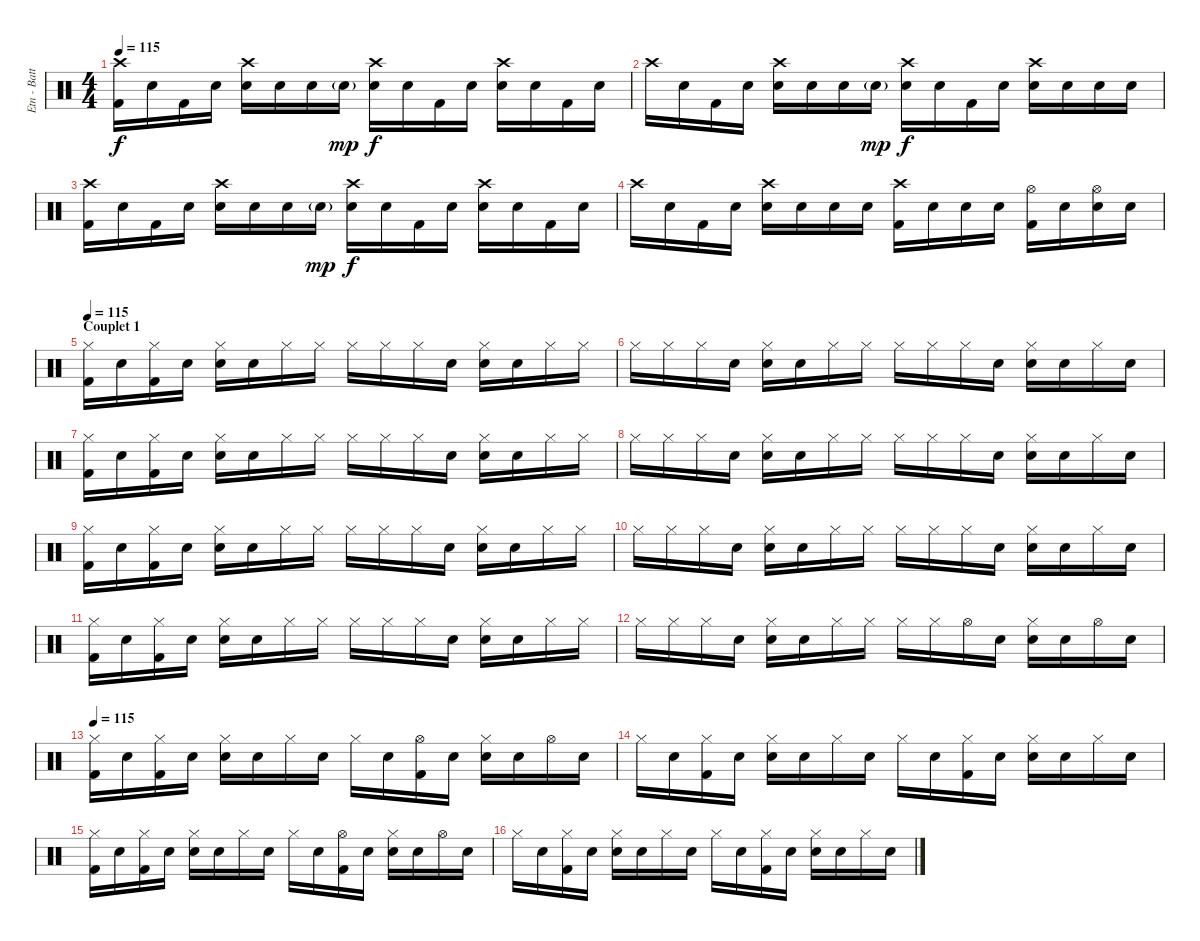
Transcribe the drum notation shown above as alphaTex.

\track ("Etn - Batterie" "Etn - Batt") {instrument percussion}
\staff {score}
\articulation defaults
\ts (4 4)
\tempo 115
\clef neutral
\ks c
("Crash high (hit)" "Kick (hit) 2").16{dy f volume 16 balance 8} "Snare (hit)".16 "Kick (hit) 2".16 "Snare (hit)".16 ("Crash high (hit)" "Electric Snare (hit)").16 "Snare (hit)".16 "Snare (hit)".16 "Electric Snare (hit)"{g}.16{dy mp} ("Crash high (hit)" "Electric Snare (hit)").16{dy f} "Snare (hit)".16 "Kick (hit) 2".16 "Snare (hit)".16 ("Crash high (hit)" "Electric Snare (hit)").16 "Snare (hit)".16 "Kick (hit) 2".16 "Snare (hit)".16 |
"Crash high (hit)".16 "Snare (hit)".16 "Kick (hit) 2".16 "Snare (hit)".16 ("Crash high (hit)" "Electric Snare (hit)").16 "Snare (hit)".16 "Snare (hit)".16 "Electric Snare (hit)"{g}.16{dy mp} ("Crash high (hit)" "Electric Snare (hit)").16{dy f} "Snare (hit)".16 "Kick (hit) 2".16 "Snare (hit)".16 ("Crash high (hit)" "Electric Snare (hit)").16 "Snare (hit)".16 "Electric Snare (hit)".16 "Electric Snare (hit)".16 |
("Crash high (hit)" "Kick (hit) 2").16 "Snare (hit)".16 "Kick (hit) 2".16 "Snare (hit)".16 ("Crash high (hit)" "Electric Snare (hit)").16 "Snare (hit)".16 "Snare (hit)".16 "Electric Snare (hit)"{g}.16{dy mp} ("Crash high (hit)" "Electric Snare (hit)").16{dy f} "Snare (hit)".16 "Kick (hit) 2".16 "Snare (hit)".16 ("Crash high (hit)" "Electric Snare (hit)").16 "Snare (hit)".16 "Kick (hit) 2".16 "Snare (hit)".16 |
"Crash high (hit)".16 "Snare (hit)".16 "Kick (hit) 2".16 "Snare (hit)".16 ("Crash high (hit)" "Electric Snare (hit)").16 "Snare (hit)".16 "Snare (hit)".16 "Snare (hit)".16 ("Crash high (hit)" "Kick (hit) 2").16 "Snare (hit)".16 "Electric Snare (hit)".16 "Snare (hit)".16 ("Hi-Hat (open)" "Kick (hit) 2").16 "Snare (hit)".16 ("Hi-Hat (open)" "Electric Snare (hit)").16 "Snare (hit)".16 |
\section ("" "Couplet 1")
\tempo 115
("Hi-Hat (closed)" "Kick (hit) 2").16{volume 12 balance 8} "Snare (hit)".16 ("Hi-Hat (closed)" "Kick (hit) 2").16 "Snare (hit)".16 ("Hi-Hat (closed)" "Electric Snare (hit)").16 "Snare (hit)".16 "Hi-Hat (closed)".16 "Hi-Hat (closed)".16 "Hi-Hat (closed)".16 "Hi-Hat (closed)".16 "Hi-Hat (closed)".16 "Snare (hit)".16 ("Hi-Hat (closed)" "Electric Snare (hit)").16 "Snare (hit)".16 "Hi-Hat (closed)".16 "Hi-Hat (closed)".16 |
"Hi-Hat (closed)".16 "Hi-Hat (closed)".16 "Hi-Hat (closed)".16 "Snare (hit)".16 ("Hi-Hat (closed)" "Electric Snare (hit)").16 "Snare (hit)".16 "Hi-Hat (closed)".16 "Hi-Hat (closed)".16 "Hi-Hat (closed)".16 "Hi-Hat (closed)".16 "Hi-Hat (closed)".16 "Snare (hit)".16 ("Hi-Hat (closed)" "Electric Snare (hit)").16 "Snare (hit)".16 "Hi-Hat (closed)".16 "Snare (hit)".16 |
("Hi-Hat (closed)" "Kick (hit) 2").16 "Snare (hit)".16 ("Hi-Hat (closed)" "Kick (hit) 2").16 "Snare (hit)".16 ("Hi-Hat (closed)" "Electric Snare (hit)").16 "Snare (hit)".16 "Hi-Hat (closed)".16 "Hi-Hat (closed)".16 "Hi-Hat (closed)".16 "Hi-Hat (closed)".16 "Hi-Hat (closed)".16 "Snare (hit)".16 ("Hi-Hat (closed)" "Electric Snare (hit)").16 "Snare (hit)".16 "Hi-Hat (closed)".16 "Hi-Hat (closed)".16 |
"Hi-Hat (closed)".16 "Hi-Hat (closed)".16 "Hi-Hat (closed)".16 "Snare (hit)".16 ("Hi-Hat (closed)" "Electric Snare (hit)").16 "Snare (hit)".16 "Hi-Hat (closed)".16 "Hi-Hat (closed)".16 "Hi-Hat (closed)".16 "Hi-Hat (closed)".16 "Hi-Hat (closed)".16 "Snare (hit)".16 ("Hi-Hat (closed)" "Electric Snare (hit)").16 "Snare (hit)".16 "Hi-Hat (closed)".16 "Snare (hit)".16 |
("Hi-Hat (closed)" "Kick (hit) 2").16 "Snare (hit)".16 ("Hi-Hat (closed)" "Kick (hit) 2").16 "Snare (hit)".16 ("Hi-Hat (closed)" "Electric Snare (hit)").16 "Snare (hit)".16 "Hi-Hat (closed)".16 "Hi-Hat (closed)".16 "Hi-Hat (closed)".16 "Hi-Hat (closed)".16 "Hi-Hat (closed)".16 "Snare (hit)".16 ("Hi-Hat (closed)" "Electric Snare (hit)").16 "Snare (hit)".16 "Hi-Hat (closed)".16 "Hi-Hat (closed)".16 |
"Hi-Hat (closed)".16 "Hi-Hat (closed)".16 "Hi-Hat (closed)".16 "Snare (hit)".16 ("Hi-Hat (closed)" "Electric Snare (hit)").16 "Snare (hit)".16 "Hi-Hat (closed)".16 "Hi-Hat (closed)".16 "Hi-Hat (closed)".16 "Hi-Hat (closed)".16 "Hi-Hat (closed)".16 "Snare (hit)".16 ("Hi-Hat (closed)" "Electric Snare (hit)").16 "Snare (hit)".16 "Hi-Hat (closed)".16 "Snare (hit)".16 |
("Hi-Hat (closed)" "Kick (hit) 2").16 "Snare (hit)".16 ("Hi-Hat (closed)" "Kick (hit) 2").16 "Snare (hit)".16 ("Hi-Hat (closed)" "Electric Snare (hit)").16 "Snare (hit)".16 "Hi-Hat (closed)".16 "Hi-Hat (closed)".16 "Hi-Hat (closed)".16 "Hi-Hat (closed)".16 "Hi-Hat (closed)".16 "Snare (hit)".16 ("Hi-Hat (closed)" "Electric Snare (hit)").16 "Snare (hit)".16 "Hi-Hat (closed)".16 "Hi-Hat (closed)".16 |
"Hi-Hat (closed)".16 "Hi-Hat (closed)".16 "Hi-Hat (closed)".16 "Snare (hit)".16 ("Hi-Hat (closed)" "Electric Snare (hit)").16 "Snare (hit)".16 "Hi-Hat (closed)".16 "Hi-Hat (closed)".16 "Hi-Hat (closed)".16 "Hi-Hat (closed)".16 "Hi-Hat (open)".16 "Snare (hit)".16 ("Hi-Hat (closed)" "Electric Snare (hit)").16 "Snare (hit)".16 "Hi-Hat (open)".16 "Snare (hit)".16 |
\section ("" "")
\tempo 115
("Hi-Hat (closed)" "Kick (hit) 2").16{volume 12 balance 8} "Snare (hit)".16 ("Hi-Hat (closed)" "Kick (hit) 2").16 "Snare (hit)".16 ("Hi-Hat (closed)" "Electric Snare (hit)").16 "Snare (hit)".16 "Hi-Hat (closed)".16 "Snare (hit)".16 "Hi-Hat (closed)".16 "Snare (hit)".16 ("Hi-Hat (open)" "Kick (hit) 2").16 "Snare (hit)".16 ("Hi-Hat (closed)" "Electric Snare (hit)").16 "Snare (hit)".16 "Hi-Hat (open)".16 "Snare (hit)".16 |
"Hi-Hat (closed)".16 "Snare (hit)".16 ("Hi-Hat (closed)" "Kick (hit) 2").16 "Snare (hit)".16 ("Hi-Hat (closed)" "Electric Snare (hit)").16 "Snare (hit)".16 "Hi-Hat (closed)".16 "Snare (hit)".16 "Hi-Hat (closed)".16 "Snare (hit)".16 ("Hi-Hat (closed)" "Kick (hit) 2").16 "Snare (hit)".16 ("Hi-Hat (closed)" "Electric Snare (hit)").16 "Snare (hit)".16 "Hi-Hat (closed)".16 "Snare (hit)".16 |
("Hi-Hat (closed)" "Kick (hit) 2").16 "Snare (hit)".16 ("Hi-Hat (closed)" "Kick (hit) 2").16 "Snare (hit)".16 ("Hi-Hat (closed)" "Electric Snare (hit)").16 "Snare (hit)".16 "Hi-Hat (closed)".16 "Snare (hit)".16 "Hi-Hat (closed)".16 "Snare (hit)".16 ("Hi-Hat (open)" "Kick (hit) 2").16 "Snare (hit)".16 ("Hi-Hat (closed)" "Electric Snare (hit)").16 "Snare (hit)".16 "Hi-Hat (open)".16 "Snare (hit)".16 |
"Hi-Hat (closed)".16 "Snare (hit)".16 ("Hi-Hat (closed)" "Kick (hit) 2").16 "Snare (hit)".16 ("Hi-Hat (closed)" "Electric Snare (hit)").16 "Snare (hit)".16 "Hi-Hat (closed)".16 "Snare (hit)".16 "Hi-Hat (closed)".16 "Snare (hit)".16 ("Hi-Hat (closed)" "Kick (hit) 2").16 "Snare (hit)".16 ("Hi-Hat (closed)" "Electric Snare (hit)").16 "Snare (hit)".16 "Hi-Hat (closed)".16 "Snare (hit)".16
